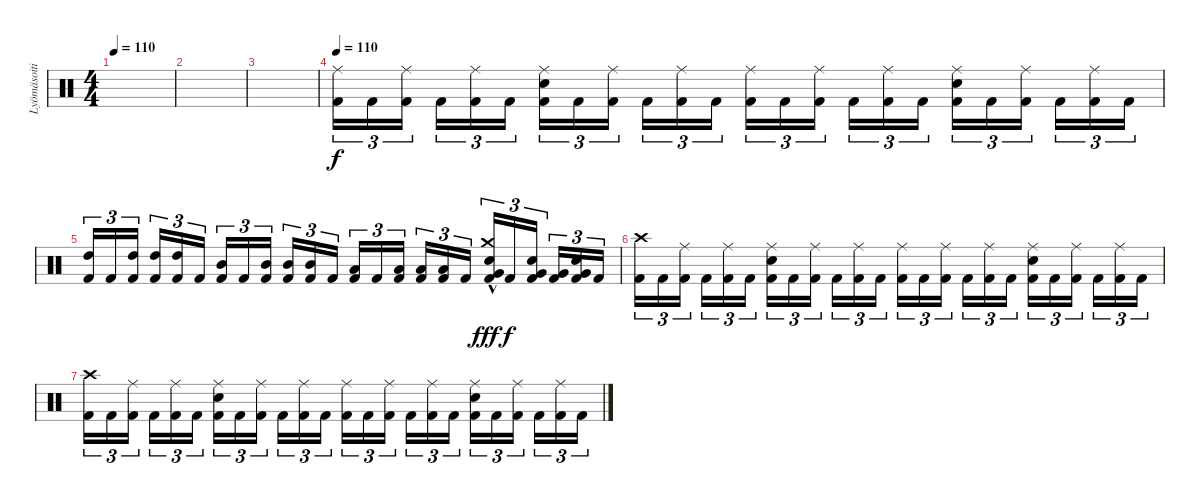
\track ("Lyömäsoitin" "Lyömäsoiti") {instrument percussion}
\staff {score}
\articulation defaults
\ts (4 4)
\tempo 110
\clef neutral
\ks c
|
|
|
\tempo 110
("Ride (middle)" "Kick (hit) 2").16{tu (3 2)} "Kick (hit) 2".16{tu (3 2)} ("Ride (middle)" "Kick (hit) 2").16{tu (3 2) beam splitsecondary} "Kick (hit) 2".16{tu (3 2)} ("Ride (middle)" "Kick (hit) 2").16{tu (3 2)} "Kick (hit) 2".16{tu (3 2)} ("Ride (middle)" "Snare (hit) 2" "Kick (hit) 2").16{tu (3 2)} "Kick (hit) 2".16{tu (3 2)} ("Ride (middle)" "Kick (hit) 2").16{tu (3 2) beam splitsecondary} "Kick (hit) 2".16{tu (3 2)} ("Ride (middle)" "Kick (hit) 2").16{tu (3 2)} "Kick (hit) 2".16{tu (3 2)} ("Ride (middle)" "Kick (hit) 2").16{tu (3 2)} "Kick (hit) 2".16{tu (3 2)} ("Ride (middle)" "Kick (hit) 2").16{tu (3 2) beam splitsecondary} "Kick (hit) 2".16{tu (3 2)} ("Ride (middle)" "Kick (hit) 2").16{tu (3 2)} "Kick (hit) 2".16{tu (3 2)} ("Ride (middle)" "Snare (hit) 2" "Kick (hit) 2").16{tu (3 2)} "Kick (hit) 2".16{tu (3 2)} ("Ride (middle)" "Kick (hit) 2").16{tu (3 2) beam splitsecondary} "Kick (hit) 2".16{tu (3 2)} ("Ride (middle)" "Kick (hit) 2").16{tu (3 2)} "Kick (hit) 2".16{tu (3 2)} |
("High Tom (hit)" "Kick (hit) 2").16{tu (3 2)} "Kick (hit) 2".16{tu (3 2)} ("High Tom (hit)" "Kick (hit) 2").16{tu (3 2) beam splitsecondary} ("High Tom (hit)" "Kick (hit) 2").16{tu (3 2)} ("High Tom (hit)" "Kick (hit) 2").16{tu (3 2)} "Kick (hit) 2".16{tu (3 2)} ("Mid Tom (hit)" "Kick (hit) 2").16{tu (3 2)} "Kick (hit) 2".16{tu (3 2)} ("Mid Tom (hit)" "Kick (hit) 2").16{tu (3 2) beam splitsecondary} ("Mid Tom (hit)" "Kick (hit) 2").16{tu (3 2)} ("Mid Tom (hit)" "Kick (hit) 2").16{tu (3 2)} "Kick (hit) 2".16{tu (3 2)} ("Low Tom (hit)" "Kick (hit) 2").16{tu (3 2)} "Kick (hit) 2".16{tu (3 2)} ("Low Tom (hit)" "Kick (hit) 2").16{tu (3 2) beam splitsecondary} ("Low Tom (hit)" "Kick (hit) 2").16{tu (3 2)} ("Low Tom (hit)" "Kick (hit) 2").16{tu (3 2)} "Kick (hit) 2".16{tu (3 2)} ("Crash medium (hit)" "Snare (hit) 2"{hac} "Very Low Tom (hit)" "Kick (hit) 2").16{tu (3 2) dy fff} "Kick (hit) 2".16{tu (3 2) dy f} ("Snare (hit) 2" "Very Low Tom (hit)" "Kick (hit) 2").16{tu (3 2) beam splitsecondary} ("Very Low Tom (hit)" "Kick (hit) 2").16{tu (3 2)} ("Snare (hit) 2" "Very Low Tom (hit)" "Kick (hit) 2").16{tu (3 2)} "Kick (hit) 2".16{tu (3 2)} |
("Crash high (hit)" "Kick (hit) 2").16{tu (3 2)} "Kick (hit) 2".16{tu (3 2)} ("Ride (middle)" "Kick (hit) 2").16{tu (3 2) beam splitsecondary} "Kick (hit) 2".16{tu (3 2)} ("Ride (middle)" "Kick (hit) 2").16{tu (3 2)} "Kick (hit) 2".16{tu (3 2)} ("Ride (middle)" "Snare (hit) 2" "Kick (hit) 2").16{tu (3 2)} "Kick (hit) 2".16{tu (3 2)} ("Ride (middle)" "Kick (hit) 2").16{tu (3 2) beam splitsecondary} "Kick (hit) 2".16{tu (3 2)} ("Ride (middle)" "Kick (hit) 2").16{tu (3 2)} "Kick (hit) 2".16{tu (3 2)} ("Ride (middle)" "Kick (hit) 2").16{tu (3 2)} "Kick (hit) 2".16{tu (3 2)} ("Ride (middle)" "Kick (hit) 2").16{tu (3 2) beam splitsecondary} "Kick (hit) 2".16{tu (3 2)} ("Ride (middle)" "Kick (hit) 2").16{tu (3 2)} "Kick (hit) 2".16{tu (3 2)} ("Ride (middle)" "Snare (hit) 2" "Kick (hit) 2").16{tu (3 2)} "Kick (hit) 2".16{tu (3 2)} ("Ride (middle)" "Kick (hit) 2").16{tu (3 2) beam splitsecondary} "Kick (hit) 2".16{tu (3 2)} ("Ride (middle)" "Kick (hit) 2").16{tu (3 2)} "Kick (hit) 2".16{tu (3 2)} |
("Crash high (hit)" "Kick (hit) 2").16{tu (3 2)} "Kick (hit) 2".16{tu (3 2)} ("Ride (middle)" "Kick (hit) 2").16{tu (3 2) beam splitsecondary} "Kick (hit) 2".16{tu (3 2)} ("Ride (middle)" "Kick (hit) 2").16{tu (3 2)} "Kick (hit) 2".16{tu (3 2)} ("Ride (middle)" "Snare (hit) 2" "Kick (hit) 2").16{tu (3 2)} "Kick (hit) 2".16{tu (3 2)} ("Ride (middle)" "Kick (hit) 2").16{tu (3 2) beam splitsecondary} "Kick (hit) 2".16{tu (3 2)} ("Ride (middle)" "Kick (hit) 2").16{tu (3 2)} "Kick (hit) 2".16{tu (3 2)} ("Ride (middle)" "Kick (hit) 2").16{tu (3 2)} "Kick (hit) 2".16{tu (3 2)} ("Ride (middle)" "Kick (hit) 2").16{tu (3 2) beam splitsecondary} "Kick (hit) 2".16{tu (3 2)} ("Ride (middle)" "Kick (hit) 2").16{tu (3 2)} "Kick (hit) 2".16{tu (3 2)} ("Ride (middle)" "Snare (hit) 2" "Kick (hit) 2").16{tu (3 2)} "Kick (hit) 2".16{tu (3 2)} ("Ride (middle)" "Kick (hit) 2").16{tu (3 2) beam splitsecondary} "Kick (hit) 2".16{tu (3 2)} ("Ride (middle)" "Kick (hit) 2").16{tu (3 2)} "Kick (hit) 2".16{tu (3 2)}
